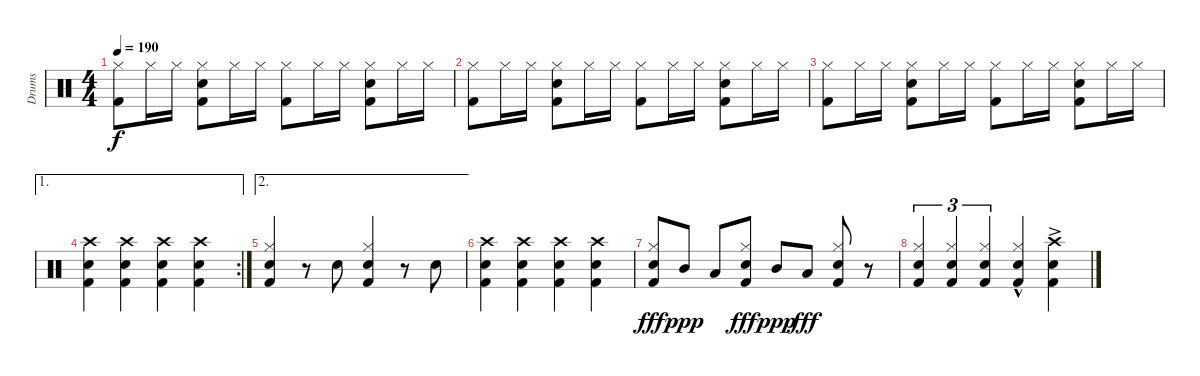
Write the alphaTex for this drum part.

\track ("Drums" "Drums") {instrument percussion}
\staff {score}
\articulation defaults
\ts (4 4)
\tempo 190
\clef neutral
\ks c
("Kick (hit) 2" "Hi-Hat (closed)").8{dy f} "Hi-Hat (closed)".16 "Hi-Hat (closed)".16 ("Kick (hit) 2" "Snare (hit) 2" "Hi-Hat (closed)").8 "Hi-Hat (closed)".16 "Hi-Hat (closed)".16 ("Kick (hit) 2" "Hi-Hat (closed)").8 "Hi-Hat (closed)".16 "Hi-Hat (closed)".16 ("Kick (hit) 2" "Snare (hit) 2" "Hi-Hat (closed)").8 "Hi-Hat (closed)".16 "Hi-Hat (closed)".16 |
("Kick (hit) 2" "Hi-Hat (closed)").8 "Hi-Hat (closed)".16 "Hi-Hat (closed)".16 ("Kick (hit) 2" "Snare (hit) 2" "Hi-Hat (closed)").8 "Hi-Hat (closed)".16 "Hi-Hat (closed)".16 ("Kick (hit) 2" "Hi-Hat (closed)").8 "Hi-Hat (closed)".16 "Hi-Hat (closed)".16 ("Kick (hit) 2" "Snare (hit) 2" "Hi-Hat (closed)").8 "Hi-Hat (closed)".16 "Hi-Hat (closed)".16 |
("Kick (hit) 2" "Hi-Hat (closed)").8 "Hi-Hat (closed)".16 "Hi-Hat (closed)".16 ("Kick (hit) 2" "Snare (hit) 2" "Hi-Hat (closed)").8 "Hi-Hat (closed)".16 "Hi-Hat (closed)".16 ("Kick (hit) 2" "Hi-Hat (closed)").8 "Hi-Hat (closed)".16 "Hi-Hat (closed)".16 ("Kick (hit) 2" "Snare (hit) 2" "Hi-Hat (closed)").8 "Hi-Hat (closed)".16 "Hi-Hat (closed)".16 |
\ae 1
\rc 2
("Kick (hit) 2" "Snare (hit) 2" "Crash high (hit)").4 ("Kick (hit) 2" "Snare (hit) 2" "Crash high (hit)").4 ("Kick (hit) 2" "Snare (hit) 2" "Crash high (hit)").4 ("Kick (hit) 2" "Snare (hit) 2" "Crash high (hit)").4 |
\ae 2
("Snare (hit) 2" "Kick (hit) 2" "Hi-Hat (closed)").4 r.8 "Snare (hit) 2".8 ("Snare (hit) 2" "Kick (hit) 2" "Hi-Hat (closed)").4 r.8 "Snare (hit) 2".8 |
("Snare (hit) 2" "Kick (hit) 2" "Crash high (hit)").4 ("Snare (hit) 2" "Kick (hit) 2" "Crash high (hit)").4 ("Snare (hit) 2" "Kick (hit) 2" "Crash high (hit)").4 ("Snare (hit) 2" "Kick (hit) 2" "Crash high (hit)").4 |
("Kick (hit) 2" "Snare (hit) 2" "Hi-Hat (closed)").8{dy fff} "Mid Tom (hit)".8{dy ppp} "Low Tom (hit)".8 ("Kick (hit) 2" "Snare (hit) 2" "Hi-Hat (closed)").8{dy fff} "Mid Tom (hit)".8{dy ppp} "Low Tom (hit)".8{dy fff} ("Kick (hit) 2" "Snare (hit) 2" "Hi-Hat (closed)").8 r.8 |
("Kick (hit) 2" "Snare (hit) 2" "Hi-Hat (closed)").4{tu (3 2)} ("Kick (hit) 2" "Snare (hit) 2" "Hi-Hat (closed)").4{tu (3 2)} ("Kick (hit) 2" "Snare (hit) 2" "Hi-Hat (closed)").4{tu (3 2)} ("Kick (hit) 2"{hac} "Snare (hit) 2"{hac} "Hi-Hat (closed)"{hac}).4 ("Snare (hit) 2"{ac} "Kick (hit) 2"{ac} "Crash high (hit)"{ac}).4
